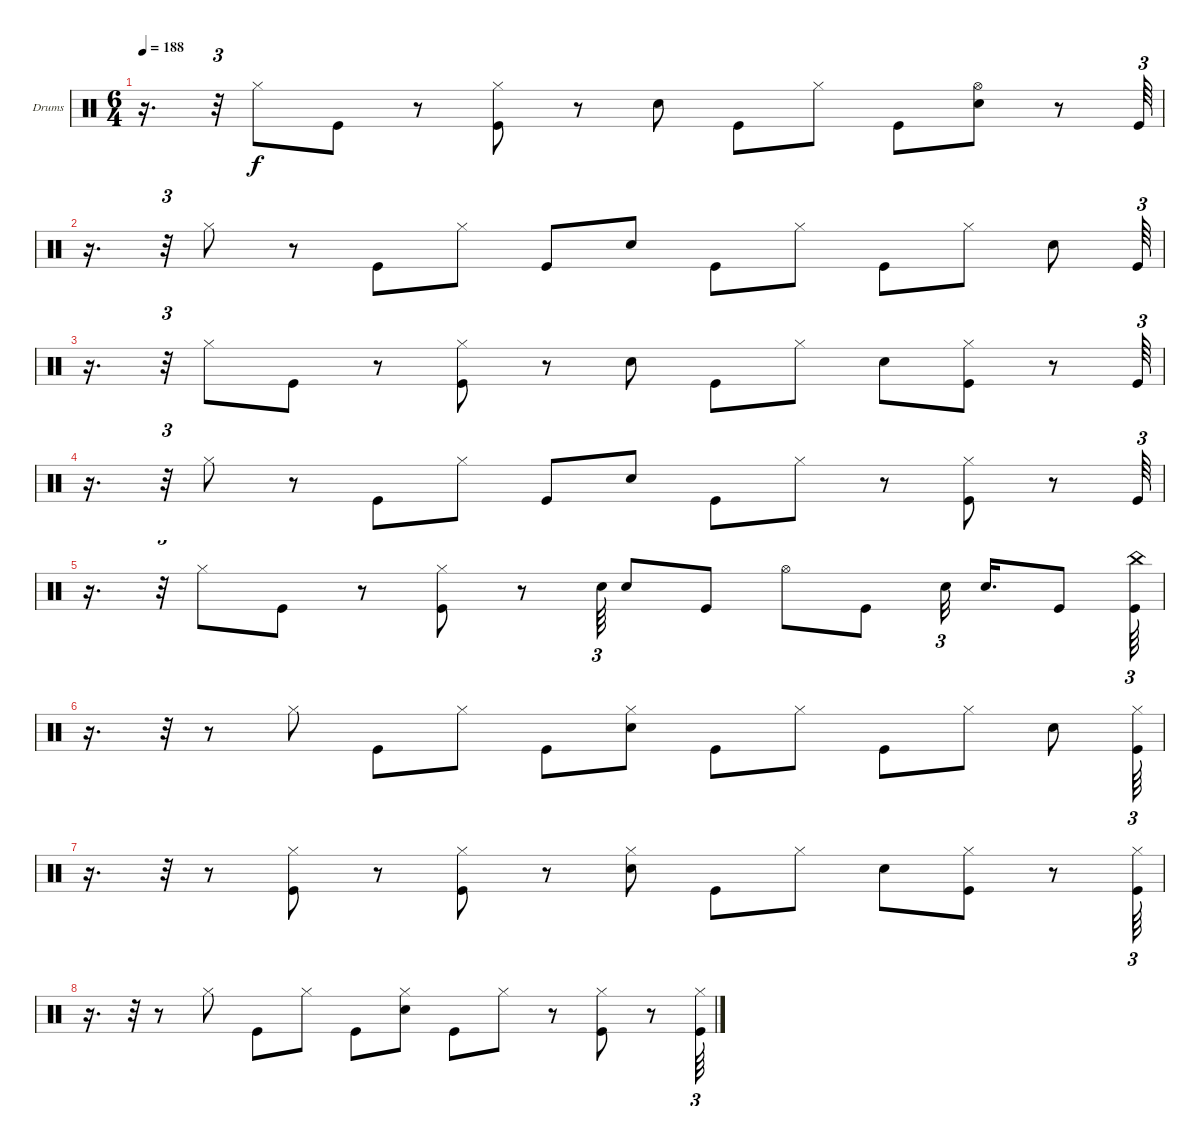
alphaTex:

\bracketExtendMode groupsimilarinstruments
\firstSystemTrackNameOrientation horizontal
\otherSystemsTrackNameOrientation horizontal
\track ("Drumkit" "Drums") {instrument percussion}
\staff {score}
\articulation defaults
\ts (6 4)
\tempo 188
\clef neutral
\ks c
r.16{d dy f} r.32{tu (3 2)} "Hi-Hat (closed)".8 "Kick (hit)".8 r.8 ("Kick (hit)" "Hi-Hat (closed)").8 r.8 "Snare (hit) 2".8 "Kick (hit)".8 "Hi-Hat (closed)".8 "Kick (hit)".8 ("Snare (hit) 2" "Hi-Hat (open)").8 r.8 "Kick (hit)".64{tu (3 2)} |
r.16{d} r.32{tu (3 2)} "Hi-Hat (closed)".8 r.8 "Kick (hit)".8 "Hi-Hat (closed)".8 "Kick (hit)".8 "Snare (hit) 2".8 "Kick (hit)".8 "Hi-Hat (closed)".8 "Kick (hit)".8 "Hi-Hat (closed)".8 "Snare (hit) 2".8 "Kick (hit)".64{tu (3 2)} |
r.16{d} r.32{tu (3 2)} "Hi-Hat (closed)".8 "Kick (hit)".8 r.8 ("Hi-Hat (closed)" "Kick (hit)").8 r.8 "Snare (hit) 2".8 "Kick (hit)".8 "Hi-Hat (closed)".8 "Snare (hit) 2".8 ("Kick (hit)" "Hi-Hat (closed)").8 r.8 "Kick (hit)".64{tu (3 2)} |
r.16{d} r.32{tu (3 2)} "Hi-Hat (closed)".8 r.8 "Kick (hit)".8 "Hi-Hat (closed)".8 "Kick (hit)".8 "Snare (hit) 2".8 "Kick (hit)".8 "Hi-Hat (closed)".8 r.8 ("Kick (hit)" "Hi-Hat (closed)").8 r.8 "Kick (hit)".64{tu (3 2)} |
r.16{d} r.32{tu (3 2)} "Hi-Hat (closed)".8 "Kick (hit)".8 r.8 ("Kick (hit)" "Hi-Hat (closed)").8 r.8 "Snare (hit) 2".64{tu (3 2)} "Snare (hit) 2".8 "Kick (hit)".8 "Hi-Hat (open)".8 "Kick (hit)".8 "Snare (hit) 2".32{tu (3 2)} "Snare (hit) 2".16{d} "Kick (hit)".8 ("Kick (hit)" "China (hit)").64{tu (3 2)} |
r.16{d} r.32{tu (3 2)} r.8 "Hi-Hat (closed)".8 "Kick (hit)".8 "Hi-Hat (closed)".8 "Kick (hit)".8 ("Snare (hit) 2" "Hi-Hat (closed)").8 "Kick (hit)".8 "Hi-Hat (closed)".8 "Kick (hit)".8 "Hi-Hat (closed)".8 "Snare (hit) 2".8 ("Kick (hit)" "Hi-Hat (closed)").64{tu (3 2)} |
r.16{d} r.32{tu (3 2)} r.8 ("Kick (hit)" "Hi-Hat (closed)").8 r.8 ("Kick (hit)" "Hi-Hat (closed)").8 r.8 ("Snare (hit) 2" "Hi-Hat (closed)").8 "Kick (hit)".8 "Hi-Hat (closed)".8 "Snare (hit) 2".8 ("Kick (hit)" "Hi-Hat (closed)").8 r.8 ("Kick (hit)" "Hi-Hat (closed)").64{tu (3 2)} |
r.16{d} r.32{tu (3 2)} r.8 "Hi-Hat (closed)".8 "Kick (hit)".8 "Hi-Hat (closed)".8 "Kick (hit)".8 ("Snare (hit) 2" "Hi-Hat (closed)").8 "Kick (hit)".8 "Hi-Hat (closed)".8 r.8 ("Hi-Hat (closed)" "Kick (hit)").8 r.8 ("Hi-Hat (closed)" "Kick (hit)").64{tu (3 2)}
